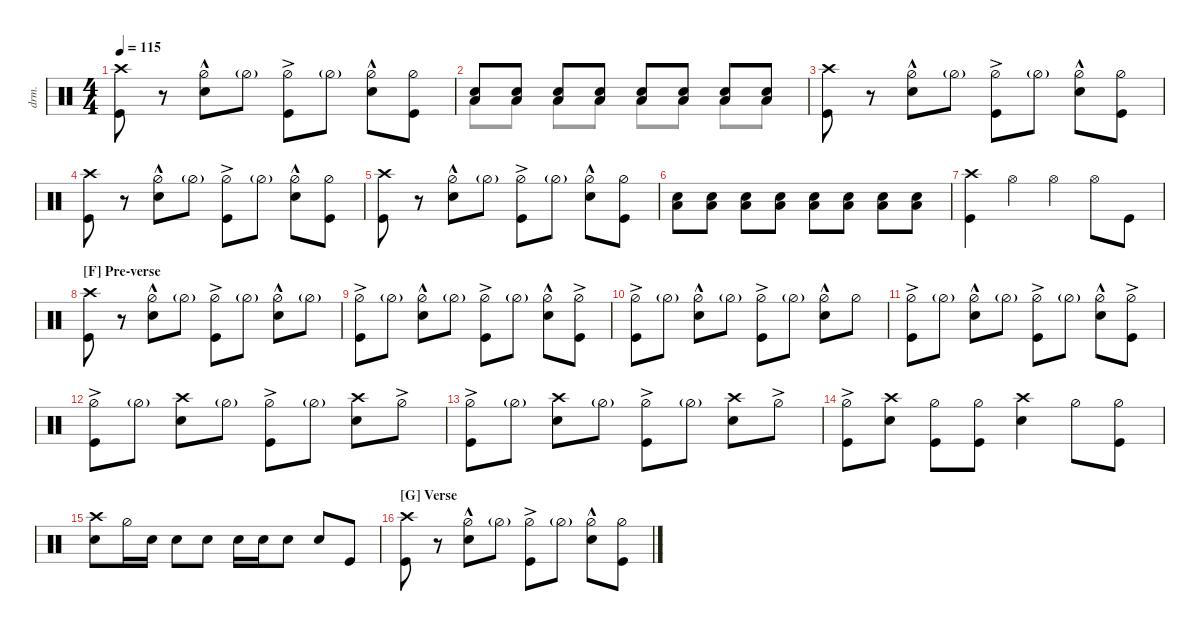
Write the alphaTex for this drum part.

\defaultSystemsLayout 4
\hideDynamics
\bracketExtendMode nobrackets
\otherSystemsTrackNameOrientation horizontal
\track ("Drums" "drm.") {multiBarRest instrument percussion}
\staff
\articulation defaults
\voice
\ts (4 4)
\tempo 115
\clef neutral
\ks c
("Kick (hit)" "Crash high (hit)").8{dy f} r.8 ("Hi-Hat (half)"{hac} "Snare (hit) 2").8 "Hi-Hat (half)"{g}.8 ("Kick (hit)" "Hi-Hat (half)"{ac}).8 "Hi-Hat (half)"{g}.8 ("Hi-Hat (half)"{hac} "Snare (hit) 2").8 ("Hi-Hat (half)" "Kick (hit)").8 |
("Snare (hit) 2" "Low Tom (hit)").8 ("Snare (hit) 2" "Low Tom (hit)").8 ("Snare (hit) 2" "Low Tom (hit)").8 ("Snare (hit) 2" "Low Tom (hit)").8 ("Snare (hit) 2" "Low Tom (hit)").8 ("Snare (hit) 2" "Low Tom (hit)").8 ("Snare (hit) 2" "Low Tom (hit)").8 ("Snare (hit) 2" "Low Tom (hit)").8 |
("Kick (hit)" "Crash high (hit)").8 r.8 ("Hi-Hat (half)"{hac} "Snare (hit) 2").8 "Hi-Hat (half)"{g}.8 ("Kick (hit)" "Hi-Hat (half)"{ac}).8 "Hi-Hat (half)"{g}.8 ("Hi-Hat (half)"{hac} "Snare (hit) 2").8 ("Hi-Hat (half)" "Kick (hit)").8 |
("Kick (hit)" "Crash high (hit)").8 r.8 ("Hi-Hat (half)"{hac} "Snare (hit) 2").8 "Hi-Hat (half)"{g}.8 ("Kick (hit)" "Hi-Hat (half)"{ac}).8 "Hi-Hat (half)"{g}.8 ("Hi-Hat (half)"{hac} "Snare (hit) 2").8 ("Hi-Hat (half)" "Kick (hit)").8 |
("Kick (hit)" "Crash high (hit)").8 r.8 ("Hi-Hat (half)"{hac} "Snare (hit) 2").8 "Hi-Hat (half)"{g}.8 ("Kick (hit)" "Hi-Hat (half)"{ac}).8 "Hi-Hat (half)"{g}.8 ("Hi-Hat (half)"{hac} "Snare (hit) 2").8 ("Hi-Hat (half)" "Kick (hit)").8 |
("Snare (hit) 2" "Low Tom (hit)").8{dy mp} ("Snare (hit) 2" "Low Tom (hit)").8 ("Snare (hit) 2" "Low Tom (hit)").8{dy mf} ("Snare (hit) 2" "Low Tom (hit)").8 ("Snare (hit) 2" "Low Tom (hit)").8{dy f} ("Snare (hit) 2" "Low Tom (hit)").8 ("Snare (hit) 2" "Low Tom (hit)").8 ("Snare (hit) 2" "Low Tom (hit)").8 |
("Kick (hit)" "Crash high (hit)").4 "Hi-Hat (open)".4 "Hi-Hat (open)".4 "Hi-Hat (open)".8 "Kick (hit)".8 |
\section ("F" "Pre-verse")
("Kick (hit)" "Crash high (hit)").8 r.8 ("Hi-Hat (half)"{hac} "Snare (hit) 2").8 "Hi-Hat (half)"{g}.8 ("Kick (hit)" "Hi-Hat (half)"{ac}).8 "Hi-Hat (half)"{g}.8 ("Hi-Hat (half)"{hac} "Snare (hit) 2").8 "Hi-Hat (half)"{g}.8 |
("Kick (hit)" "Hi-Hat (half)"{ac}).8 "Hi-Hat (half)"{g}.8 ("Hi-Hat (half)"{hac} "Snare (hit) 2").8 "Hi-Hat (half)"{g}.8 ("Kick (hit)" "Hi-Hat (half)"{ac}).8 "Hi-Hat (half)"{g}.8 ("Hi-Hat (half)"{hac} "Snare (hit) 2").8 ("Hi-Hat (half)"{ac} "Kick (hit)").8 |
("Kick (hit)" "Hi-Hat (half)"{ac}).8 "Hi-Hat (half)"{g}.8 ("Hi-Hat (half)"{hac} "Snare (hit) 2").8 "Hi-Hat (half)"{g}.8 ("Kick (hit)" "Hi-Hat (half)"{ac}).8 "Hi-Hat (half)"{g}.8 ("Hi-Hat (half)"{hac} "Snare (hit) 2").8 "Hi-Hat (half)".8 |
("Kick (hit)" "Hi-Hat (half)"{ac}).8 "Hi-Hat (half)"{g}.8 ("Hi-Hat (half)"{hac} "Snare (hit) 2").8 "Hi-Hat (half)"{g}.8 ("Kick (hit)" "Hi-Hat (half)"{ac}).8 "Hi-Hat (half)"{g}.8 ("Hi-Hat (half)"{hac} "Snare (hit) 2").8 ("Hi-Hat (half)"{ac} "Kick (hit)").8 |
("Kick (hit)" "Hi-Hat (half)"{ac}).8 "Hi-Hat (half)"{g}.8 ("Snare (hit) 2" "Crash high (hit)").8 "Hi-Hat (half)"{g}.8 ("Kick (hit)" "Hi-Hat (half)"{ac}).8 "Hi-Hat (half)"{g}.8 ("Snare (hit) 2" "Crash high (hit)").8 "Hi-Hat (half)"{ac}.8 |
("Kick (hit)" "Hi-Hat (half)"{ac}).8 "Hi-Hat (half)"{g}.8 ("Snare (hit) 2" "Crash high (hit)").8 "Hi-Hat (half)"{g}.8 ("Kick (hit)" "Hi-Hat (half)"{ac}).8 "Hi-Hat (half)"{g}.8 ("Snare (hit) 2" "Crash high (hit)").8 "Hi-Hat (half)"{ac}.8 |
("Kick (hit)" "Hi-Hat (half)"{ac}).8 ("Crash high (hit)" "Snare (hit) 2").8 ("Kick (hit)" "Hi-Hat (half)").8 ("Hi-Hat (half)" "Kick (hit)").8 ("Snare (hit) 2" "Crash high (hit)").4 "Hi-Hat (half)".8 ("Hi-Hat (half)" "Kick (hit)").8 |
("Snare (hit) 2" "Crash high (hit)").8 "Hi-Hat (half)".16 "Snare (hit) 2".16 "Snare (hit) 2".8 "Snare (hit) 2".8 "Snare (hit) 2".16 "Snare (hit) 2".16 "Snare (hit) 2".8 "Snare (hit) 2".8 "Kick (hit)".8 |
\section ("G" "Verse")
("Kick (hit)" "Crash high (hit)").8 r.8 ("Hi-Hat (half)"{hac} "Snare (hit) 2").8 "Hi-Hat (half)"{g}.8 ("Kick (hit)" "Hi-Hat (half)"{ac}).8 "Hi-Hat (half)"{g}.8 ("Hi-Hat (half)"{hac} "Snare (hit) 2").8 ("Hi-Hat (half)" "Kick (hit)").8
\voice
\clef neutral
\ottava regular
\simile none
\ks c
|
"Low Tom (hit)".8 "Low Tom (hit)".8 "Low Tom (hit)".8 "Low Tom (hit)".8 "Low Tom (hit)".8 "Low Tom (hit)".8 "Low Tom (hit)".8 "Low Tom (hit)".8 |
|
|
|
|
|
|
|
|
|
|
|
|
|
